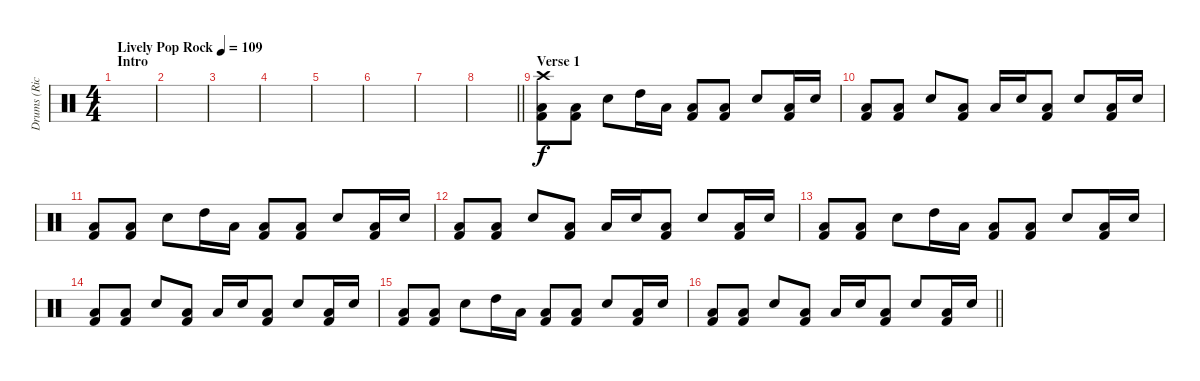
\track ("Drums (Rick McMurray)" "Drums (Ric") {instrument percussion}
\staff {score}
\articulation defaults
\ts (4 4)
\section ("" "Intro")
\tempo (109 "Lively Pop Rock")
\clef neutral
\ks c
|
|
|
|
|
|
|
\barLineRight lightlight
|
\section ("" "Verse 1")
("Crash high (hit)" "Low Floor Tom (hit)" "Kick (hit) 2").8 ("Low Floor Tom (hit)" "Kick (hit) 2").8 "Snare (hit) 2".8 "High Tom (hit)".16 "Low Tom (hit)".16 ("Low Floor Tom (hit)" "Kick (hit) 2").8 ("Low Floor Tom (hit)" "Kick (hit) 2").8 "Snare (hit) 2".8 ("Low Floor Tom (hit)" "Kick (hit) 2").16 "Snare (hit) 2".16 |
("Low Floor Tom (hit)" "Kick (hit) 2").8 ("Low Floor Tom (hit)" "Kick (hit) 2").8 "Snare (hit) 2".8 ("Low Floor Tom (hit)" "Kick (hit) 2").8 "Low Floor Tom (hit)".16 "Snare (hit) 2".16 ("Low Floor Tom (hit)" "Kick (hit) 2").8 "Snare (hit) 2".8 ("Kick (hit) 2" "Low Floor Tom (hit)").16 "Snare (hit) 2".16 |
("Low Floor Tom (hit)" "Kick (hit) 2").8 ("Low Floor Tom (hit)" "Kick (hit) 2").8 "Snare (hit) 2".8 "High Tom (hit)".16 "Low Tom (hit)".16 ("Low Floor Tom (hit)" "Kick (hit) 2").8 ("Low Floor Tom (hit)" "Kick (hit) 2").8 "Snare (hit) 2".8 ("Low Floor Tom (hit)" "Kick (hit) 2").16 "Snare (hit) 2".16 |
("Low Floor Tom (hit)" "Kick (hit) 2").8 ("Low Floor Tom (hit)" "Kick (hit) 2").8 "Snare (hit) 2".8 ("Low Floor Tom (hit)" "Kick (hit) 2").8 "Low Floor Tom (hit)".16 "Snare (hit) 2".16 ("Low Floor Tom (hit)" "Kick (hit) 2").8 "Snare (hit) 2".8 ("Kick (hit) 2" "Low Floor Tom (hit)").16 "Snare (hit) 2".16 |
("Low Floor Tom (hit)" "Kick (hit) 2").8 ("Low Floor Tom (hit)" "Kick (hit) 2").8 "Snare (hit) 2".8 "High Tom (hit)".16 "Low Tom (hit)".16 ("Low Floor Tom (hit)" "Kick (hit) 2").8 ("Low Floor Tom (hit)" "Kick (hit) 2").8 "Snare (hit) 2".8 ("Low Floor Tom (hit)" "Kick (hit) 2").16 "Snare (hit) 2".16 |
("Low Floor Tom (hit)" "Kick (hit) 2").8 ("Low Floor Tom (hit)" "Kick (hit) 2").8 "Snare (hit) 2".8 ("Low Floor Tom (hit)" "Kick (hit) 2").8 "Low Floor Tom (hit)".16 "Snare (hit) 2".16 ("Low Floor Tom (hit)" "Kick (hit) 2").8 "Snare (hit) 2".8 ("Kick (hit) 2" "Low Floor Tom (hit)").16 "Snare (hit) 2".16 |
("Low Floor Tom (hit)" "Kick (hit) 2").8 ("Low Floor Tom (hit)" "Kick (hit) 2").8 "Snare (hit) 2".8 "High Tom (hit)".16 "Low Tom (hit)".16 ("Low Floor Tom (hit)" "Kick (hit) 2").8 ("Low Floor Tom (hit)" "Kick (hit) 2").8 "Snare (hit) 2".8 ("Low Floor Tom (hit)" "Kick (hit) 2").16 "Snare (hit) 2".16 |
\barLineRight lightlight
("Low Floor Tom (hit)" "Kick (hit) 2").8 ("Low Floor Tom (hit)" "Kick (hit) 2").8 "Snare (hit) 2".8 ("Low Floor Tom (hit)" "Kick (hit) 2").8 "Low Floor Tom (hit)".16 "Snare (hit) 2".16 ("Low Floor Tom (hit)" "Kick (hit) 2").8 "Snare (hit) 2".8 ("Kick (hit) 2" "Low Floor Tom (hit)").16 "Snare (hit) 2".16
